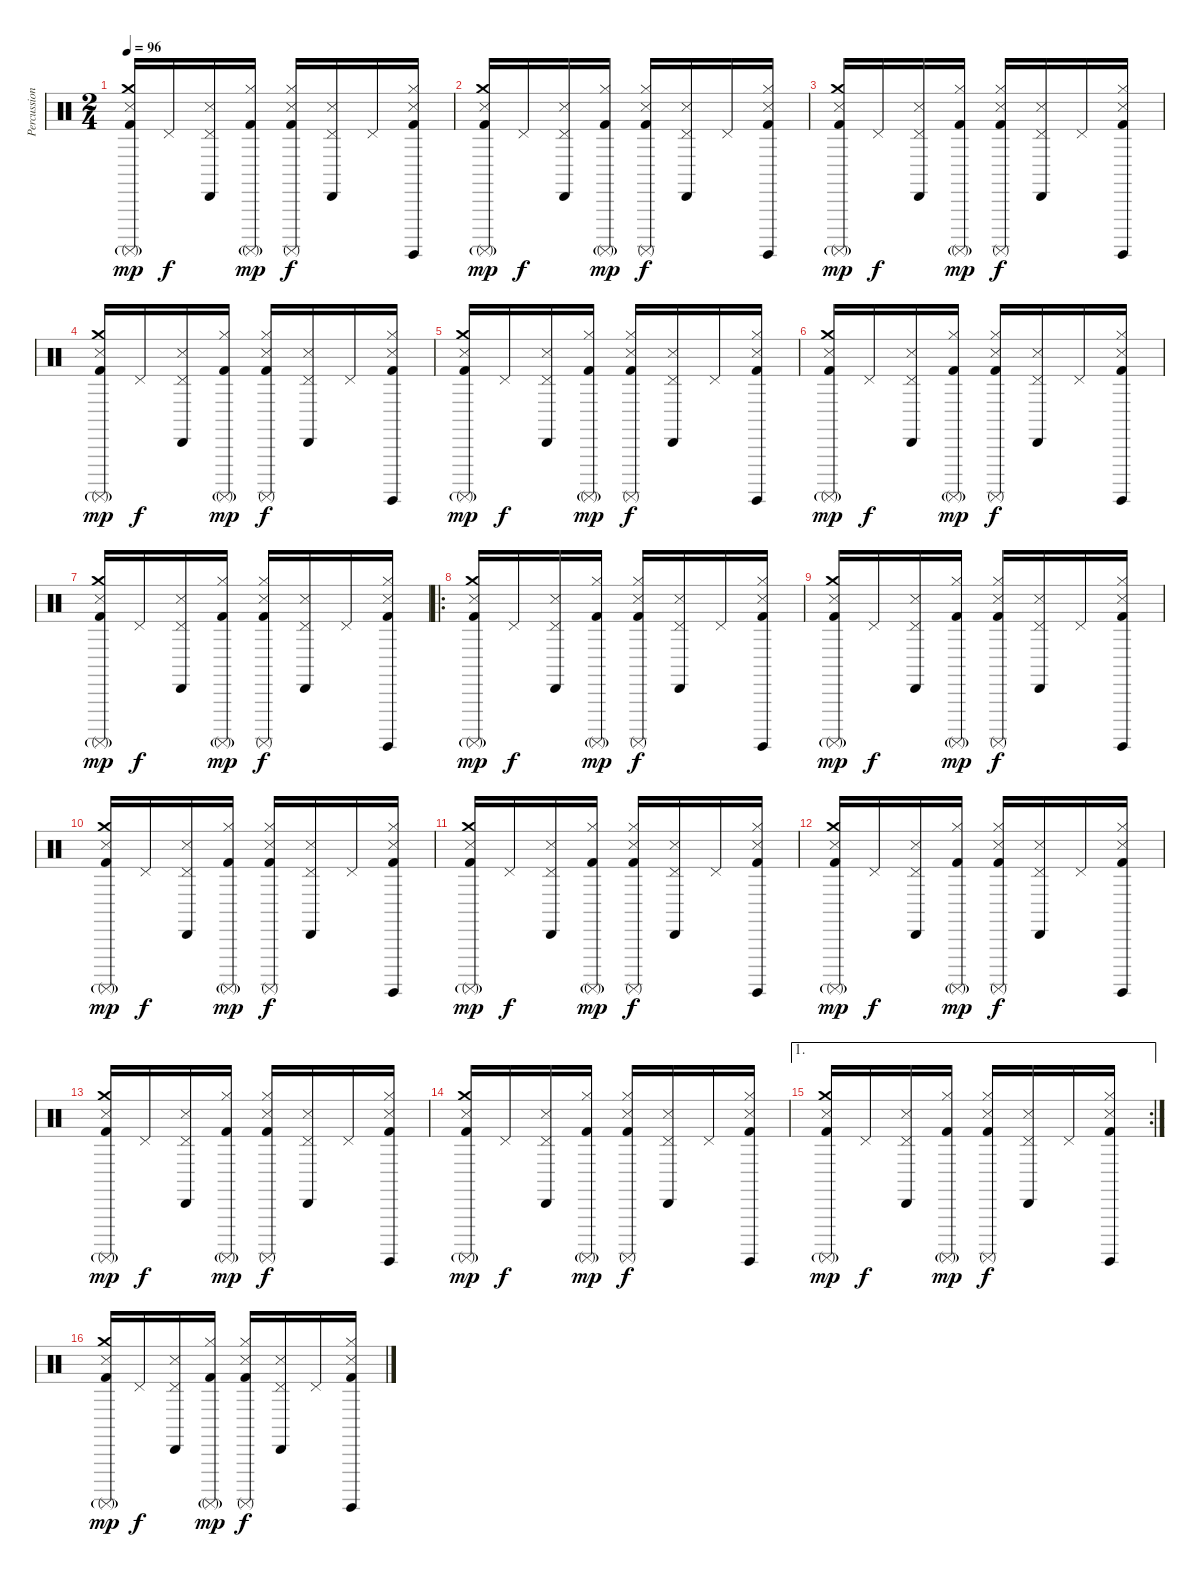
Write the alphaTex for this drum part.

\track ("Percussion" "Percussion") {instrument percussion}
\staff {score}
\articulation defaults
\ts (2 4)
\tempo 96
\clef neutral
\ks c
("Crash medium (hit)" "Snare (side stick) 3" "Surdo (mute)"{g} "Kick (hit) 2").16{dy mp volume 12} "Pedal Hi-Hat (hit)".16{dy f} ("Pedal Hi-Hat (hit)" "Cabasa (hit)" "Snare (side stick) 3").16 ("Hi-Hat (closed)" "Surdo (mute)"{g} "Kick (hit) 2").16{dy mp} ("Hi-Hat (closed)" "Snare (side stick) 3" "Surdo (mute)" "Kick (hit) 2").16{dy f} ("Pedal Hi-Hat (hit)" "Cabasa (hit)" "Snare (side stick) 3").16 "Pedal Hi-Hat (hit)".16 ("Hi-Hat (closed)" "Snare (side stick) 3" "Surdo (hit)" "Kick (hit) 2").16 |
("Crash medium (hit)" "Snare (side stick) 3" "Surdo (mute)"{g} "Kick (hit) 2").16{dy mp volume 12} "Pedal Hi-Hat (hit)".16{dy f} ("Pedal Hi-Hat (hit)" "Cabasa (hit)" "Snare (side stick) 3").16 ("Hi-Hat (closed)" "Surdo (mute)"{g} "Kick (hit) 2").16{dy mp} ("Hi-Hat (closed)" "Snare (side stick) 3" "Surdo (mute)" "Kick (hit) 2").16{dy f} ("Pedal Hi-Hat (hit)" "Cabasa (hit)" "Snare (side stick) 3").16 "Pedal Hi-Hat (hit)".16 ("Hi-Hat (closed)" "Snare (side stick) 3" "Surdo (hit)" "Kick (hit) 2").16 |
("Crash medium (hit)" "Snare (side stick) 3" "Surdo (mute)"{g} "Kick (hit) 2").16{dy mp volume 12} "Pedal Hi-Hat (hit)".16{dy f} ("Pedal Hi-Hat (hit)" "Cabasa (hit)" "Snare (side stick) 3").16 ("Hi-Hat (closed)" "Surdo (mute)"{g} "Kick (hit) 2").16{dy mp} ("Hi-Hat (closed)" "Snare (side stick) 3" "Surdo (mute)" "Kick (hit) 2").16{dy f} ("Pedal Hi-Hat (hit)" "Cabasa (hit)" "Snare (side stick) 3").16 "Pedal Hi-Hat (hit)".16 ("Hi-Hat (closed)" "Snare (side stick) 3" "Surdo (hit)" "Kick (hit) 2").16 |
("Crash medium (hit)" "Snare (side stick) 3" "Surdo (mute)"{g} "Kick (hit) 2").16{dy mp volume 12} "Pedal Hi-Hat (hit)".16{dy f} ("Pedal Hi-Hat (hit)" "Cabasa (hit)" "Snare (side stick) 3").16 ("Hi-Hat (closed)" "Surdo (mute)"{g} "Kick (hit) 2").16{dy mp} ("Hi-Hat (closed)" "Snare (side stick) 3" "Surdo (mute)" "Kick (hit) 2").16{dy f} ("Pedal Hi-Hat (hit)" "Cabasa (hit)" "Snare (side stick) 3").16 "Pedal Hi-Hat (hit)".16 ("Hi-Hat (closed)" "Snare (side stick) 3" "Surdo (hit)" "Kick (hit) 2").16 |
("Crash medium (hit)" "Snare (side stick) 3" "Surdo (mute)"{g} "Kick (hit) 2").16{dy mp volume 12} "Pedal Hi-Hat (hit)".16{dy f} ("Pedal Hi-Hat (hit)" "Cabasa (hit)" "Snare (side stick) 3").16 ("Hi-Hat (closed)" "Surdo (mute)"{g} "Kick (hit) 2").16{dy mp} ("Hi-Hat (closed)" "Snare (side stick) 3" "Surdo (mute)" "Kick (hit) 2").16{dy f} ("Pedal Hi-Hat (hit)" "Cabasa (hit)" "Snare (side stick) 3").16 "Pedal Hi-Hat (hit)".16 ("Hi-Hat (closed)" "Snare (side stick) 3" "Surdo (hit)" "Kick (hit) 2").16 |
("Crash medium (hit)" "Snare (side stick) 3" "Surdo (mute)"{g} "Kick (hit) 2").16{dy mp volume 12} "Pedal Hi-Hat (hit)".16{dy f} ("Pedal Hi-Hat (hit)" "Cabasa (hit)" "Snare (side stick) 3").16 ("Hi-Hat (closed)" "Surdo (mute)"{g} "Kick (hit) 2").16{dy mp} ("Hi-Hat (closed)" "Snare (side stick) 3" "Surdo (mute)" "Kick (hit) 2").16{dy f} ("Pedal Hi-Hat (hit)" "Cabasa (hit)" "Snare (side stick) 3").16 "Pedal Hi-Hat (hit)".16 ("Hi-Hat (closed)" "Snare (side stick) 3" "Surdo (hit)" "Kick (hit) 2").16 |
("Crash medium (hit)" "Snare (side stick) 3" "Surdo (mute)"{g} "Kick (hit) 2").16{dy mp volume 12} "Pedal Hi-Hat (hit)".16{dy f} ("Pedal Hi-Hat (hit)" "Cabasa (hit)" "Snare (side stick) 3").16 ("Hi-Hat (closed)" "Surdo (mute)"{g} "Kick (hit) 2").16{dy mp} ("Hi-Hat (closed)" "Snare (side stick) 3" "Surdo (mute)" "Kick (hit) 2").16{dy f} ("Pedal Hi-Hat (hit)" "Cabasa (hit)" "Snare (side stick) 3").16 "Pedal Hi-Hat (hit)".16 ("Hi-Hat (closed)" "Snare (side stick) 3" "Surdo (hit)" "Kick (hit) 2").16 |
\ro
("Crash medium (hit)" "Snare (side stick) 3" "Surdo (mute)"{g} "Kick (hit) 2").16{dy mp volume 12} "Pedal Hi-Hat (hit)".16{dy f} ("Pedal Hi-Hat (hit)" "Cabasa (hit)" "Snare (side stick) 3").16 ("Hi-Hat (closed)" "Surdo (mute)"{g} "Kick (hit) 2").16{dy mp} ("Hi-Hat (closed)" "Snare (side stick) 3" "Surdo (mute)" "Kick (hit) 2").16{dy f} ("Pedal Hi-Hat (hit)" "Cabasa (hit)" "Snare (side stick) 3").16 "Pedal Hi-Hat (hit)".16 ("Hi-Hat (closed)" "Snare (side stick) 3" "Surdo (hit)" "Kick (hit) 2").16 |
("Crash medium (hit)" "Snare (side stick) 3" "Surdo (mute)"{g} "Kick (hit) 2").16{dy mp volume 12} "Pedal Hi-Hat (hit)".16{dy f} ("Pedal Hi-Hat (hit)" "Cabasa (hit)" "Snare (side stick) 3").16 ("Hi-Hat (closed)" "Surdo (mute)"{g} "Kick (hit) 2").16{dy mp} ("Hi-Hat (closed)" "Snare (side stick) 3" "Surdo (mute)" "Kick (hit) 2").16{dy f} ("Pedal Hi-Hat (hit)" "Cabasa (hit)" "Snare (side stick) 3").16 "Pedal Hi-Hat (hit)".16 ("Hi-Hat (closed)" "Snare (side stick) 3" "Surdo (hit)" "Kick (hit) 2").16 |
("Crash medium (hit)" "Snare (side stick) 3" "Surdo (mute)"{g} "Kick (hit) 2").16{dy mp volume 12} "Pedal Hi-Hat (hit)".16{dy f} ("Pedal Hi-Hat (hit)" "Cabasa (hit)" "Snare (side stick) 3").16 ("Hi-Hat (closed)" "Surdo (mute)"{g} "Kick (hit) 2").16{dy mp} ("Hi-Hat (closed)" "Snare (side stick) 3" "Surdo (mute)" "Kick (hit) 2").16{dy f} ("Pedal Hi-Hat (hit)" "Cabasa (hit)" "Snare (side stick) 3").16 "Pedal Hi-Hat (hit)".16 ("Hi-Hat (closed)" "Snare (side stick) 3" "Surdo (hit)" "Kick (hit) 2").16 |
("Crash medium (hit)" "Snare (side stick) 3" "Surdo (mute)"{g} "Kick (hit) 2").16{dy mp volume 12} "Pedal Hi-Hat (hit)".16{dy f} ("Pedal Hi-Hat (hit)" "Cabasa (hit)" "Snare (side stick) 3").16 ("Hi-Hat (closed)" "Surdo (mute)"{g} "Kick (hit) 2").16{dy mp} ("Hi-Hat (closed)" "Snare (side stick) 3" "Surdo (mute)" "Kick (hit) 2").16{dy f} ("Pedal Hi-Hat (hit)" "Cabasa (hit)" "Snare (side stick) 3").16 "Pedal Hi-Hat (hit)".16 ("Hi-Hat (closed)" "Snare (side stick) 3" "Surdo (hit)" "Kick (hit) 2").16 |
("Crash medium (hit)" "Snare (side stick) 3" "Surdo (mute)"{g} "Kick (hit) 2").16{dy mp volume 12} "Pedal Hi-Hat (hit)".16{dy f} ("Pedal Hi-Hat (hit)" "Cabasa (hit)" "Snare (side stick) 3").16 ("Hi-Hat (closed)" "Surdo (mute)"{g} "Kick (hit) 2").16{dy mp} ("Hi-Hat (closed)" "Snare (side stick) 3" "Surdo (mute)" "Kick (hit) 2").16{dy f} ("Pedal Hi-Hat (hit)" "Cabasa (hit)" "Snare (side stick) 3").16 "Pedal Hi-Hat (hit)".16 ("Hi-Hat (closed)" "Snare (side stick) 3" "Surdo (hit)" "Kick (hit) 2").16 |
("Crash medium (hit)" "Snare (side stick) 3" "Surdo (mute)"{g} "Kick (hit) 2").16{dy mp volume 12} "Pedal Hi-Hat (hit)".16{dy f} ("Pedal Hi-Hat (hit)" "Cabasa (hit)" "Snare (side stick) 3").16 ("Hi-Hat (closed)" "Surdo (mute)"{g} "Kick (hit) 2").16{dy mp} ("Hi-Hat (closed)" "Snare (side stick) 3" "Surdo (mute)" "Kick (hit) 2").16{dy f} ("Pedal Hi-Hat (hit)" "Cabasa (hit)" "Snare (side stick) 3").16 "Pedal Hi-Hat (hit)".16 ("Hi-Hat (closed)" "Snare (side stick) 3" "Surdo (hit)" "Kick (hit) 2").16 |
("Crash medium (hit)" "Snare (side stick) 3" "Surdo (mute)"{g} "Kick (hit) 2").16{dy mp volume 12} "Pedal Hi-Hat (hit)".16{dy f} ("Pedal Hi-Hat (hit)" "Cabasa (hit)" "Snare (side stick) 3").16 ("Hi-Hat (closed)" "Surdo (mute)"{g} "Kick (hit) 2").16{dy mp} ("Hi-Hat (closed)" "Snare (side stick) 3" "Surdo (mute)" "Kick (hit) 2").16{dy f} ("Pedal Hi-Hat (hit)" "Cabasa (hit)" "Snare (side stick) 3").16 "Pedal Hi-Hat (hit)".16 ("Hi-Hat (closed)" "Snare (side stick) 3" "Surdo (hit)" "Kick (hit) 2").16 |
\ae 1
\rc 2
("Crash medium (hit)" "Snare (side stick) 3" "Surdo (mute)"{g} "Kick (hit) 2").16{dy mp volume 12} "Pedal Hi-Hat (hit)".16{dy f} ("Pedal Hi-Hat (hit)" "Cabasa (hit)" "Snare (side stick) 3").16 ("Hi-Hat (closed)" "Surdo (mute)"{g} "Kick (hit) 2").16{dy mp} ("Hi-Hat (closed)" "Snare (side stick) 3" "Surdo (mute)" "Kick (hit) 2").16{dy f} ("Pedal Hi-Hat (hit)" "Cabasa (hit)" "Snare (side stick) 3").16 "Pedal Hi-Hat (hit)".16 ("Hi-Hat (closed)" "Snare (side stick) 3" "Surdo (hit)" "Kick (hit) 2").16 |
("Crash medium (hit)" "Snare (side stick) 3" "Surdo (mute)"{g} "Kick (hit) 2").16{dy mp volume 12} "Pedal Hi-Hat (hit)".16{dy f} ("Pedal Hi-Hat (hit)" "Cabasa (hit)" "Snare (side stick) 3").16 ("Hi-Hat (closed)" "Surdo (mute)"{g} "Kick (hit) 2").16{dy mp} ("Hi-Hat (closed)" "Snare (side stick) 3" "Surdo (mute)" "Kick (hit) 2").16{dy f} ("Pedal Hi-Hat (hit)" "Cabasa (hit)" "Snare (side stick) 3").16 "Pedal Hi-Hat (hit)".16 ("Hi-Hat (closed)" "Snare (side stick) 3" "Surdo (hit)" "Kick (hit) 2").16
